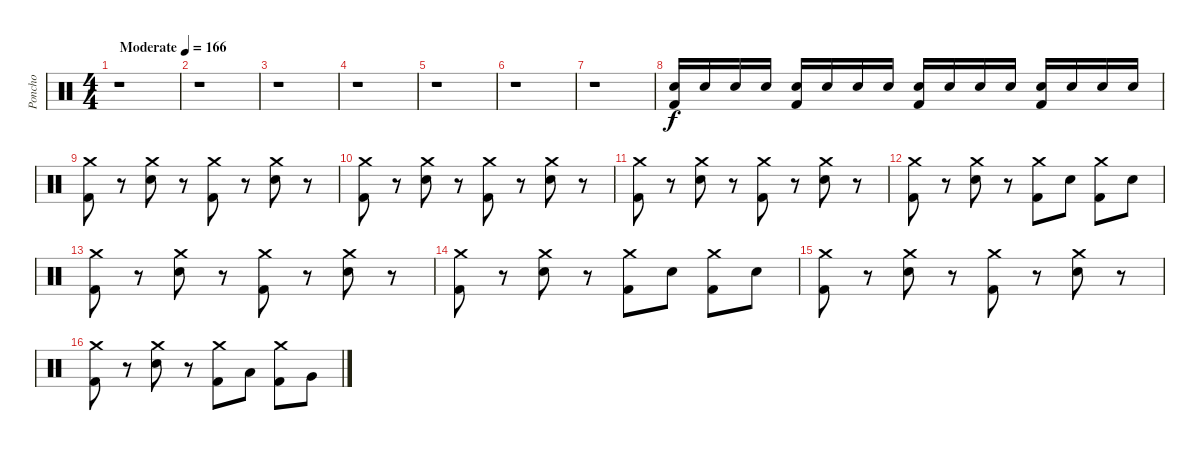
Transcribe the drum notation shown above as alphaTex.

\track ("Poncho" "Poncho") {instrument percussion}
\staff {score}
\articulation defaults
\ts (4 4)
\tempo (166 "Moderate")
\clef neutral
\ks c
r.1{dy f} |
r.1 |
r.1 |
r.1 |
r.1 |
r.1 |
r.1 |
("Electric Snare (hit)" "Kick (hit) 2").16 "Electric Snare (hit)".16 "Electric Snare (hit)".16 "Electric Snare (hit)".16 ("Electric Snare (hit)" "Kick (hit) 2").16 "Electric Snare (hit)".16 "Electric Snare (hit)".16 "Electric Snare (hit)".16 ("Electric Snare (hit)" "Kick (hit) 2").16 "Electric Snare (hit)".16 "Electric Snare (hit)".16 "Electric Snare (hit)".16 ("Electric Snare (hit)" "Kick (hit) 2").16 "Electric Snare (hit)".16 "Electric Snare (hit)".16 "Electric Snare (hit)".16 |
("Crash medium (hit)" "Kick (hit) 2").8 r.8 ("Crash medium (hit)" "Electric Snare (hit)").8 r.8 ("Crash medium (hit)" "Kick (hit) 2").8 r.8 ("Crash medium (hit)" "Electric Snare (hit)").8 r.8 |
("Crash medium (hit)" "Kick (hit) 2").8 r.8 ("Crash medium (hit)" "Electric Snare (hit)").8 r.8 ("Crash medium (hit)" "Kick (hit) 2").8 r.8 ("Crash medium (hit)" "Electric Snare (hit)").8 r.8 |
("Crash medium (hit)" "Kick (hit) 2").8 r.8 ("Crash medium (hit)" "Electric Snare (hit)").8 r.8 ("Crash medium (hit)" "Kick (hit) 2").8 r.8 ("Crash medium (hit)" "Electric Snare (hit)").8 r.8 |
("Crash medium (hit)" "Kick (hit) 2").8 r.8 ("Crash medium (hit)" "Electric Snare (hit)").8 r.8 ("Crash medium (hit)" "Kick (hit) 2").8 "Electric Snare (hit)".8 ("Crash medium (hit)" "Kick (hit) 2").8 "Electric Snare (hit)".8 |
("Crash medium (hit)" "Kick (hit) 2").8 r.8 ("Crash medium (hit)" "Electric Snare (hit)").8 r.8 ("Crash medium (hit)" "Kick (hit) 2").8 r.8 ("Crash medium (hit)" "Electric Snare (hit)").8 r.8 |
("Crash medium (hit)" "Kick (hit) 2").8 r.8 ("Crash medium (hit)" "Electric Snare (hit)").8 r.8 ("Crash medium (hit)" "Kick (hit) 2").8 "Electric Snare (hit)".8 ("Crash medium (hit)" "Kick (hit) 2").8 "Electric Snare (hit)".8 |
("Crash medium (hit)" "Kick (hit) 2").8 r.8 ("Crash medium (hit)" "Electric Snare (hit)").8 r.8 ("Crash medium (hit)" "Kick (hit) 2").8 r.8 ("Crash medium (hit)" "Electric Snare (hit)").8 r.8 |
("Crash medium (hit)" "Kick (hit) 2").8 r.8 ("Crash medium (hit)" "Electric Snare (hit)").8 r.8 ("Crash medium (hit)" "Kick (hit) 2").8 "Low Tom (hit)".8 ("Crash medium (hit)" "Kick (hit) 2").8 "Very Low Tom (hit)".8
